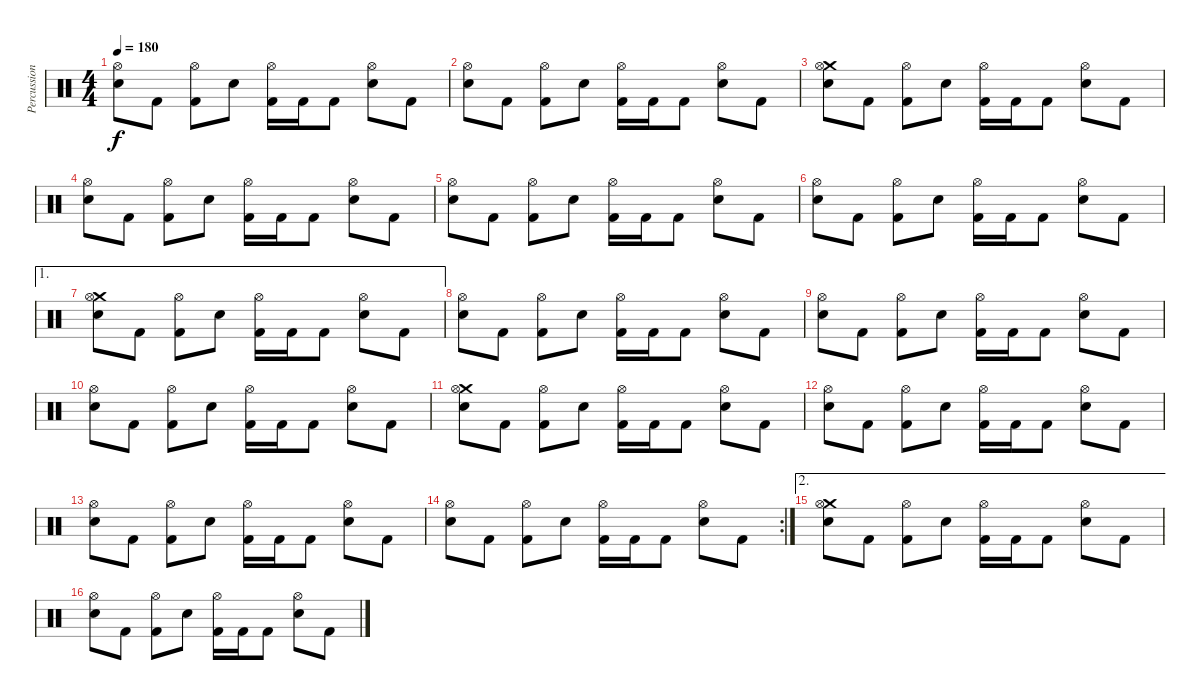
\track ("Percussion" "Percussion") {instrument percussion}
\staff {score}
\articulation defaults
\ts (4 4)
\tempo 180
\clef neutral
\ks c
("Hi-Hat (open)" "Electric Snare (hit)").8{dy f} "Kick (hit) 2".8 ("Hi-Hat (open)" "Kick (hit) 2").8 "Electric Snare (hit)".8 ("Hi-Hat (open)" "Kick (hit) 2").16 "Kick (hit) 2".16 "Kick (hit) 2".8 ("Hi-Hat (open)" "Electric Snare (hit)").8 "Kick (hit) 2".8 |
("Hi-Hat (open)" "Electric Snare (hit)").8 "Kick (hit) 2".8 ("Hi-Hat (open)" "Kick (hit) 2").8 "Electric Snare (hit)".8 ("Hi-Hat (open)" "Kick (hit) 2").16 "Kick (hit) 2".16 "Kick (hit) 2".8 ("Hi-Hat (open)" "Electric Snare (hit)").8 "Kick (hit) 2".8 |
("Crash medium (hit)" "Hi-Hat (open)" "Electric Snare (hit)").8 "Kick (hit) 2".8 ("Hi-Hat (open)" "Kick (hit) 2").8 "Electric Snare (hit)".8 ("Hi-Hat (open)" "Kick (hit) 2").16 "Kick (hit) 2".16 "Kick (hit) 2".8 ("Hi-Hat (open)" "Electric Snare (hit)").8 "Kick (hit) 2".8 |
("Hi-Hat (open)" "Electric Snare (hit)").8 "Kick (hit) 2".8 ("Hi-Hat (open)" "Kick (hit) 2").8 "Electric Snare (hit)".8 ("Hi-Hat (open)" "Kick (hit) 2").16 "Kick (hit) 2".16 "Kick (hit) 2".8 ("Hi-Hat (open)" "Electric Snare (hit)").8 "Kick (hit) 2".8 |
("Hi-Hat (open)" "Electric Snare (hit)").8 "Kick (hit) 2".8 ("Hi-Hat (open)" "Kick (hit) 2").8 "Electric Snare (hit)".8 ("Hi-Hat (open)" "Kick (hit) 2").16 "Kick (hit) 2".16 "Kick (hit) 2".8 ("Hi-Hat (open)" "Electric Snare (hit)").8 "Kick (hit) 2".8 |
("Hi-Hat (open)" "Electric Snare (hit)").8 "Kick (hit) 2".8 ("Hi-Hat (open)" "Kick (hit) 2").8 "Electric Snare (hit)".8 ("Hi-Hat (open)" "Kick (hit) 2").16 "Kick (hit) 2".16 "Kick (hit) 2".8 ("Hi-Hat (open)" "Electric Snare (hit)").8 "Kick (hit) 2".8 |
\ae 1
("Crash medium (hit)" "Hi-Hat (open)" "Electric Snare (hit)").8 "Kick (hit) 2".8 ("Hi-Hat (open)" "Kick (hit) 2").8 "Electric Snare (hit)".8 ("Hi-Hat (open)" "Kick (hit) 2").16 "Kick (hit) 2".16 "Kick (hit) 2".8 ("Hi-Hat (open)" "Electric Snare (hit)").8 "Kick (hit) 2".8 |
("Hi-Hat (open)" "Electric Snare (hit)").8 "Kick (hit) 2".8 ("Hi-Hat (open)" "Kick (hit) 2").8 "Electric Snare (hit)".8 ("Hi-Hat (open)" "Kick (hit) 2").16 "Kick (hit) 2".16 "Kick (hit) 2".8 ("Hi-Hat (open)" "Electric Snare (hit)").8 "Kick (hit) 2".8 |
("Hi-Hat (open)" "Electric Snare (hit)").8 "Kick (hit) 2".8 ("Hi-Hat (open)" "Kick (hit) 2").8 "Electric Snare (hit)".8 ("Hi-Hat (open)" "Kick (hit) 2").16 "Kick (hit) 2".16 "Kick (hit) 2".8 ("Hi-Hat (open)" "Electric Snare (hit)").8 "Kick (hit) 2".8 |
("Hi-Hat (open)" "Electric Snare (hit)").8 "Kick (hit) 2".8 ("Hi-Hat (open)" "Kick (hit) 2").8 "Electric Snare (hit)".8 ("Hi-Hat (open)" "Kick (hit) 2").16 "Kick (hit) 2".16 "Kick (hit) 2".8 ("Hi-Hat (open)" "Electric Snare (hit)").8 "Kick (hit) 2".8 |
("Crash medium (hit)" "Hi-Hat (open)" "Electric Snare (hit)").8 "Kick (hit) 2".8 ("Hi-Hat (open)" "Kick (hit) 2").8 "Electric Snare (hit)".8 ("Hi-Hat (open)" "Kick (hit) 2").16 "Kick (hit) 2".16 "Kick (hit) 2".8 ("Hi-Hat (open)" "Electric Snare (hit)").8 "Kick (hit) 2".8 |
("Hi-Hat (open)" "Electric Snare (hit)").8 "Kick (hit) 2".8 ("Hi-Hat (open)" "Kick (hit) 2").8 "Electric Snare (hit)".8 ("Hi-Hat (open)" "Kick (hit) 2").16 "Kick (hit) 2".16 "Kick (hit) 2".8 ("Hi-Hat (open)" "Electric Snare (hit)").8 "Kick (hit) 2".8 |
("Hi-Hat (open)" "Electric Snare (hit)").8 "Kick (hit) 2".8 ("Hi-Hat (open)" "Kick (hit) 2").8 "Electric Snare (hit)".8 ("Hi-Hat (open)" "Kick (hit) 2").16 "Kick (hit) 2".16 "Kick (hit) 2".8 ("Hi-Hat (open)" "Electric Snare (hit)").8 "Kick (hit) 2".8 |
\rc 2
("Hi-Hat (open)" "Electric Snare (hit)").8 "Kick (hit) 2".8 ("Hi-Hat (open)" "Kick (hit) 2").8 "Electric Snare (hit)".8 ("Hi-Hat (open)" "Kick (hit) 2").16 "Kick (hit) 2".16 "Kick (hit) 2".8 ("Hi-Hat (open)" "Electric Snare (hit)").8 "Kick (hit) 2".8 |
\ae 2
("Crash medium (hit)" "Hi-Hat (open)" "Electric Snare (hit)").8 "Kick (hit) 2".8 ("Hi-Hat (open)" "Kick (hit) 2").8 "Electric Snare (hit)".8 ("Hi-Hat (open)" "Kick (hit) 2").16 "Kick (hit) 2".16 "Kick (hit) 2".8 ("Hi-Hat (open)" "Electric Snare (hit)").8 "Kick (hit) 2".8 |
("Hi-Hat (open)" "Electric Snare (hit)").8 "Kick (hit) 2".8 ("Hi-Hat (open)" "Kick (hit) 2").8 "Electric Snare (hit)".8 ("Hi-Hat (open)" "Kick (hit) 2").16 "Kick (hit) 2".16 "Kick (hit) 2".8 ("Hi-Hat (open)" "Electric Snare (hit)").8 "Kick (hit) 2".8
